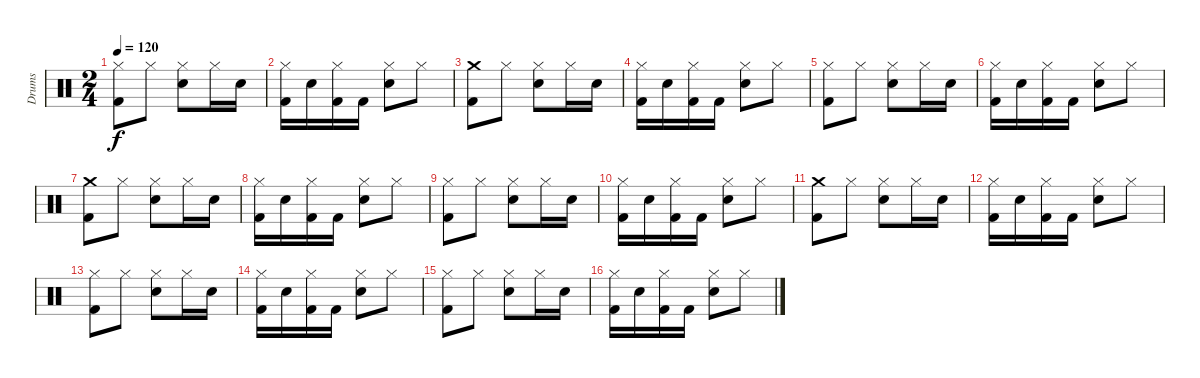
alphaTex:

\track ("Drums" "Drums") {instrument percussion}
\staff {score}
\articulation defaults
\ts (2 4)
\tempo 120
\clef neutral
\ks aminor
("Hi-Hat (closed)" "Kick (hit) 2").8{dy f} "Hi-Hat (closed)".8 ("Hi-Hat (closed)" "Electric Snare (hit)").8 "Hi-Hat (closed)".16 "Electric Snare (hit)".16 |
("Kick (hit) 2" "Hi-Hat (closed)").16 "Electric Snare (hit)".16 ("Kick (hit) 2" "Hi-Hat (closed)").16 "Kick (hit) 2".16 ("Electric Snare (hit)" "Hi-Hat (closed)").8 "Hi-Hat (closed)".8 |
("Crash medium (hit)" "Kick (hit) 2").8 "Hi-Hat (closed)".8 ("Hi-Hat (closed)" "Electric Snare (hit)").8 "Hi-Hat (closed)".16 "Electric Snare (hit)".16 |
("Kick (hit) 2" "Hi-Hat (closed)").16 "Electric Snare (hit)".16 ("Kick (hit) 2" "Hi-Hat (closed)").16 "Kick (hit) 2".16 ("Electric Snare (hit)" "Hi-Hat (closed)").8 "Hi-Hat (closed)".8 |
("Hi-Hat (closed)" "Kick (hit) 2").8 "Hi-Hat (closed)".8 ("Hi-Hat (closed)" "Electric Snare (hit)").8 "Hi-Hat (closed)".16 "Electric Snare (hit)".16 |
("Kick (hit) 2" "Hi-Hat (closed)").16 "Electric Snare (hit)".16 ("Kick (hit) 2" "Hi-Hat (closed)").16 "Kick (hit) 2".16 ("Electric Snare (hit)" "Hi-Hat (closed)").8 "Hi-Hat (closed)".8 |
("Crash medium (hit)" "Kick (hit) 2").8 "Hi-Hat (closed)".8 ("Hi-Hat (closed)" "Electric Snare (hit)").8 "Hi-Hat (closed)".16 "Electric Snare (hit)".16 |
("Kick (hit) 2" "Hi-Hat (closed)").16 "Electric Snare (hit)".16 ("Kick (hit) 2" "Hi-Hat (closed)").16 "Kick (hit) 2".16 ("Electric Snare (hit)" "Hi-Hat (closed)").8 "Hi-Hat (closed)".8 |
("Hi-Hat (closed)" "Kick (hit) 2").8 "Hi-Hat (closed)".8 ("Hi-Hat (closed)" "Electric Snare (hit)").8 "Hi-Hat (closed)".16 "Electric Snare (hit)".16 |
("Kick (hit) 2" "Hi-Hat (closed)").16 "Electric Snare (hit)".16 ("Kick (hit) 2" "Hi-Hat (closed)").16 "Kick (hit) 2".16 ("Electric Snare (hit)" "Hi-Hat (closed)").8 "Hi-Hat (closed)".8 |
("Crash medium (hit)" "Kick (hit) 2").8 "Hi-Hat (closed)".8 ("Hi-Hat (closed)" "Electric Snare (hit)").8 "Hi-Hat (closed)".16 "Electric Snare (hit)".16 |
("Kick (hit) 2" "Hi-Hat (closed)").16 "Electric Snare (hit)".16 ("Kick (hit) 2" "Hi-Hat (closed)").16 "Kick (hit) 2".16 ("Electric Snare (hit)" "Hi-Hat (closed)").8 "Hi-Hat (closed)".8 |
("Hi-Hat (closed)" "Kick (hit) 2").8 "Hi-Hat (closed)".8 ("Hi-Hat (closed)" "Electric Snare (hit)").8 "Hi-Hat (closed)".16 "Electric Snare (hit)".16 |
("Kick (hit) 2" "Hi-Hat (closed)").16 "Electric Snare (hit)".16 ("Kick (hit) 2" "Hi-Hat (closed)").16 "Kick (hit) 2".16 ("Electric Snare (hit)" "Hi-Hat (closed)").8 "Hi-Hat (closed)".8 |
("Hi-Hat (closed)" "Kick (hit) 2").8 "Hi-Hat (closed)".8 ("Hi-Hat (closed)" "Electric Snare (hit)").8 "Hi-Hat (closed)".16 "Electric Snare (hit)".16 |
("Kick (hit) 2" "Hi-Hat (closed)").16 "Electric Snare (hit)".16 ("Kick (hit) 2" "Hi-Hat (closed)").16 "Kick (hit) 2".16 ("Electric Snare (hit)" "Hi-Hat (closed)").8 "Hi-Hat (closed)".8
